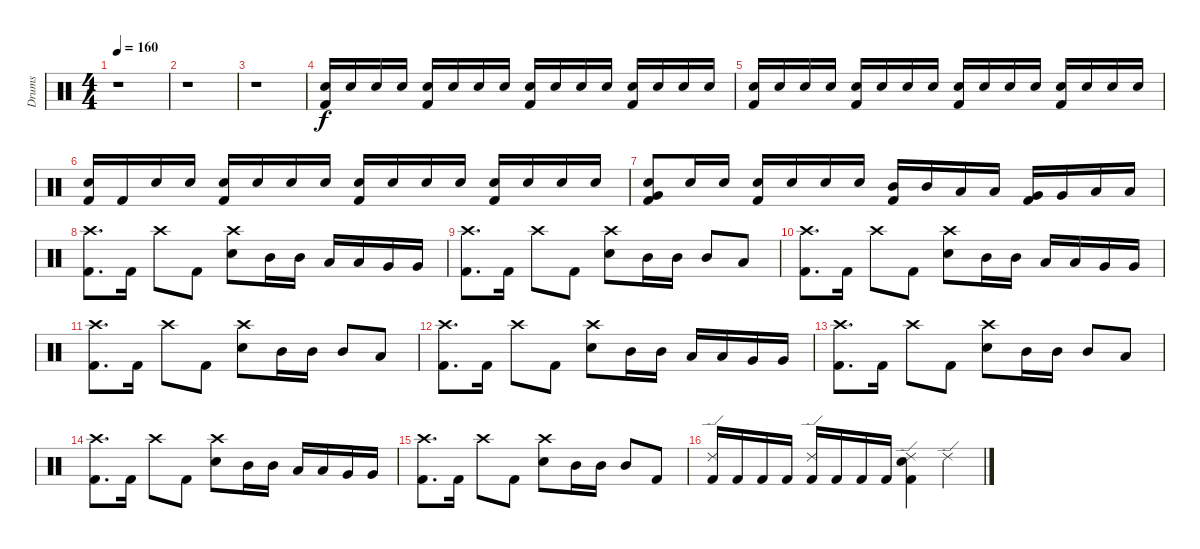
\track ("Drums" "Drums") {instrument percussion}
\staff {score}
\articulation defaults
\ts (4 4)
\tempo 160
\clef neutral
\ks c
r.1{dy f} |
r.1 |
r.1 |
("Snare (hit) 2" "Kick (hit) 2").16 "Snare (hit) 2".16 "Snare (hit) 2".16 "Snare (hit) 2".16 ("Snare (hit) 2" "Kick (hit) 2").16 "Snare (hit) 2".16 "Snare (hit) 2".16 "Snare (hit) 2".16 ("Snare (hit) 2" "Kick (hit) 2").16 "Snare (hit) 2".16 "Snare (hit) 2".16 "Snare (hit) 2".16 ("Snare (hit) 2" "Kick (hit) 2").16 "Snare (hit) 2".16 "Snare (hit) 2".16 "Snare (hit) 2".16 |
("Snare (hit) 2" "Kick (hit) 2").16 "Snare (hit) 2".16 "Snare (hit) 2".16 "Snare (hit) 2".16 ("Snare (hit) 2" "Kick (hit) 2").16 "Snare (hit) 2".16 "Snare (hit) 2".16 "Snare (hit) 2".16 ("Snare (hit) 2" "Kick (hit) 2").16 "Snare (hit) 2".16 "Snare (hit) 2".16 "Snare (hit) 2".16 ("Snare (hit) 2" "Kick (hit) 2").16 "Snare (hit) 2".16 "Snare (hit) 2".16 "Snare (hit) 2".16 |
("Snare (hit) 2" "Kick (hit) 2").16 "Kick (hit) 2".16 "Snare (hit) 2".16 "Snare (hit) 2".16 ("Snare (hit) 2" "Kick (hit) 2").16 "Snare (hit) 2".16 "Snare (hit) 2".16 "Snare (hit) 2".16 ("Snare (hit) 2" "Kick (hit) 2").16 "Snare (hit) 2".16 "Snare (hit) 2".16 "Snare (hit) 2".16 ("Snare (hit) 2" "Kick (hit) 2").16 "Snare (hit) 2".16 "Snare (hit) 2".16 "Snare (hit) 2".16 |
("Very Low Tom (hit)" "Snare (hit) 2" "Kick (hit) 2").8 "Snare (hit) 2".16 "Snare (hit) 2".16 ("Snare (hit) 2" "Kick (hit) 2").16 "Snare (hit) 2".16 "Snare (hit) 2".16 "Snare (hit) 2".16 ("Mid Tom (hit)" "Kick (hit) 2").16 "Mid Tom (hit)".16 "Low Tom (hit)".16 "Low Tom (hit)".16 ("Very Low Tom (hit)" "Kick (hit) 2").16 "Very Low Tom (hit)".16 "Low Floor Tom (hit)".16 "Low Floor Tom (hit)".16 |
("Crash high (hit)" "Kick (hit) 2").8{d} "Kick (hit) 2".16 "Crash high (hit)".8 "Kick (hit) 2".8 ("Crash high (hit)" "Snare (hit) 2").8 "Mid Tom (hit)".16 "Mid Tom (hit)".16 "Low Tom (hit)".16 "Low Tom (hit)".16 "Very Low Tom (hit)".16 "Very Low Tom (hit)".16 |
("Crash high (hit)" "Kick (hit) 2").8{d} "Kick (hit) 2".16 "Crash high (hit)".8 "Kick (hit) 2".8 ("Crash high (hit)" "Snare (hit) 2").8 "Mid Tom (hit)".16 "Mid Tom (hit)".16 "Mid Tom (hit)".8 "Low Tom (hit)".8 |
("Crash high (hit)" "Kick (hit) 2").8{d} "Kick (hit) 2".16 "Crash high (hit)".8 "Kick (hit) 2".8 ("Crash high (hit)" "Snare (hit) 2").8 "Mid Tom (hit)".16 "Mid Tom (hit)".16 "Low Tom (hit)".16 "Low Tom (hit)".16 "Very Low Tom (hit)".16 "Very Low Tom (hit)".16 |
("Crash high (hit)" "Kick (hit) 2").8{d} "Kick (hit) 2".16 "Crash high (hit)".8 "Kick (hit) 2".8 ("Crash high (hit)" "Snare (hit) 2").8 "Mid Tom (hit)".16 "Mid Tom (hit)".16 "Mid Tom (hit)".8 "Low Tom (hit)".8 |
("Crash high (hit)" "Kick (hit) 2").8{d} "Kick (hit) 2".16 "Crash high (hit)".8 "Kick (hit) 2".8 ("Crash high (hit)" "Snare (hit) 2").8 "Mid Tom (hit)".16 "Mid Tom (hit)".16 "Low Tom (hit)".16 "Low Tom (hit)".16 "Very Low Tom (hit)".16 "Very Low Tom (hit)".16 |
("Crash high (hit)" "Kick (hit) 2").8{d} "Kick (hit) 2".16 "Crash high (hit)".8 "Kick (hit) 2".8 ("Crash high (hit)" "Snare (hit) 2").8 "Mid Tom (hit)".16 "Mid Tom (hit)".16 "Mid Tom (hit)".8 "Low Tom (hit)".8 |
("Crash high (hit)" "Kick (hit) 2").8{d} "Kick (hit) 2".16 "Crash high (hit)".8 "Kick (hit) 2".8 ("Crash high (hit)" "Snare (hit) 2").8 "Mid Tom (hit)".16 "Mid Tom (hit)".16 "Low Tom (hit)".16 "Low Tom (hit)".16 "Very Low Tom (hit)".16 "Very Low Tom (hit)".16 |
("Crash high (hit)" "Kick (hit) 2").8{d} "Kick (hit) 2".16 "Crash high (hit)".8 "Kick (hit) 2".8 ("Crash high (hit)" "Snare (hit) 2").8 "Mid Tom (hit)".16 "Mid Tom (hit)".16 "Mid Tom (hit)".8 "Kick (hit) 2".8 |
("Ride (edge) 2" "Kick (hit) 2").16 "Kick (hit) 2".16 "Kick (hit) 2".16 "Kick (hit) 2".16 ("Ride (edge) 2" "Kick (hit) 2").16 "Kick (hit) 2".16 "Kick (hit) 2".16 "Kick (hit) 2".16 ("Ride (edge) 2" "Snare (hit) 2" "Kick (hit) 2").4 "Ride (edge) 2".4
